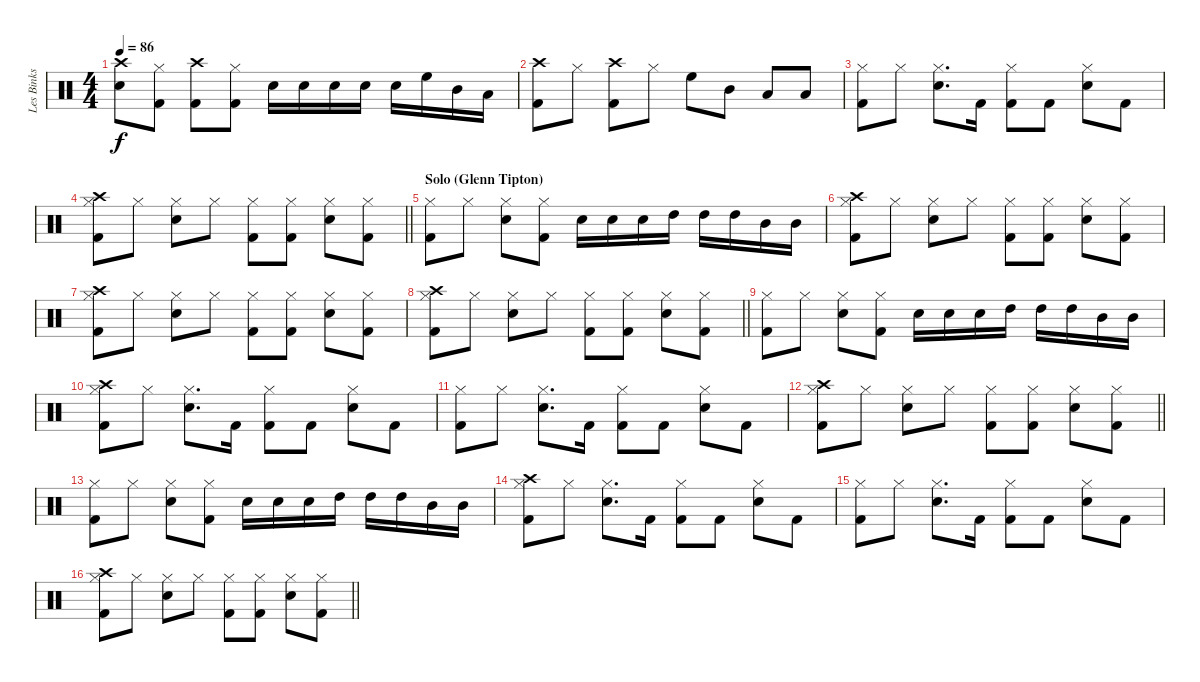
\track ("Les Binks" "Les Binks") {instrument percussion}
\staff {score}
\articulation defaults
\ts (4 4)
\tempo 86
\clef neutral
\ks c
("Snare (hit) 2" "Crash high (hit)").8{dy f} ("Hi-Hat (closed)" "Kick (hit) 2").8 ("Kick (hit) 2" "Crash high (hit)").8 ("Hi-Hat (closed)" "Kick (hit) 2").8 "Snare (hit) 2".16 "Snare (hit) 2".16 "Snare (hit) 2".16 "Snare (hit) 2".16 "Snare (hit) 2".16 "High Floor Tom (hit)".16 "Mid Tom (hit)".16 "Low Tom (hit)".16 |
("Crash high (hit)" "Kick (hit) 2").8 "Hi-Hat (closed)".8 ("Crash high (hit)" "Kick (hit) 2").8 "Hi-Hat (closed)".8 "High Floor Tom (hit)".8 "Mid Tom (hit)".8 "Low Tom (hit)".8 "Low Floor Tom (hit)".8 |
("Hi-Hat (closed)" "Kick (hit) 2").8 "Hi-Hat (closed)".8 ("Hi-Hat (closed)" "Snare (hit) 2").8{d} "Kick (hit) 2".16 ("Hi-Hat (closed)" "Kick (hit) 2").8 "Kick (hit) 2".8 ("Hi-Hat (closed)" "Snare (hit) 2").8 "Kick (hit) 2".8 |
\barLineRight lightlight
("Crash high (hit)" "Hi-Hat (closed)" "Kick (hit) 2").8 "Hi-Hat (closed)".8 ("Hi-Hat (closed)" "Snare (hit) 2").8 "Hi-Hat (closed)".8 ("Hi-Hat (closed)" "Kick (hit) 2").8 ("Hi-Hat (closed)" "Kick (hit) 2").8 ("Hi-Hat (closed)" "Snare (hit) 2").8 ("Hi-Hat (closed)" "Kick (hit) 2").8 |
\section ("" "Solo (Glenn Tipton)")
("Hi-Hat (closed)" "Kick (hit) 2").8 "Hi-Hat (closed)".8 ("Hi-Hat (closed)" "Snare (hit) 2").8 ("Hi-Hat (closed)" "Kick (hit) 2").8 "Snare (hit) 2".16 "Snare (hit) 2".16 "Snare (hit) 2".16 "High Tom (hit)".16 "High Tom (hit)".16 "High Tom (hit)".16 "Mid Tom (hit)".16 "Mid Tom (hit)".16 |
("Crash high (hit)" "Hi-Hat (closed)" "Kick (hit) 2").8 "Hi-Hat (closed)".8 ("Hi-Hat (closed)" "Snare (hit) 2").8 "Hi-Hat (closed)".8 ("Hi-Hat (closed)" "Kick (hit) 2").8 ("Hi-Hat (closed)" "Kick (hit) 2").8 ("Hi-Hat (closed)" "Snare (hit) 2").8 ("Hi-Hat (closed)" "Kick (hit) 2").8 |
("Crash high (hit)" "Hi-Hat (closed)" "Kick (hit) 2").8 "Hi-Hat (closed)".8 ("Hi-Hat (closed)" "Snare (hit) 2").8 "Hi-Hat (closed)".8 ("Hi-Hat (closed)" "Kick (hit) 2").8 ("Hi-Hat (closed)" "Kick (hit) 2").8 ("Hi-Hat (closed)" "Snare (hit) 2").8 ("Hi-Hat (closed)" "Kick (hit) 2").8 |
\barLineRight lightlight
("Crash high (hit)" "Hi-Hat (closed)" "Kick (hit) 2").8 "Hi-Hat (closed)".8 ("Hi-Hat (closed)" "Snare (hit) 2").8 "Hi-Hat (closed)".8 ("Hi-Hat (closed)" "Kick (hit) 2").8 ("Hi-Hat (closed)" "Kick (hit) 2").8 ("Hi-Hat (closed)" "Snare (hit) 2").8 ("Hi-Hat (closed)" "Kick (hit) 2").8 |
("Hi-Hat (closed)" "Kick (hit) 2").8 "Hi-Hat (closed)".8 ("Hi-Hat (closed)" "Snare (hit) 2").8 ("Hi-Hat (closed)" "Kick (hit) 2").8 "Snare (hit) 2".16 "Snare (hit) 2".16 "Snare (hit) 2".16 "High Tom (hit)".16 "High Tom (hit)".16 "High Tom (hit)".16 "Mid Tom (hit)".16 "Mid Tom (hit)".16 |
("Crash high (hit)" "Hi-Hat (closed)" "Kick (hit) 2").8 "Hi-Hat (closed)".8 ("Hi-Hat (closed)" "Snare (hit) 2").8{d} "Kick (hit) 2".16 ("Hi-Hat (closed)" "Kick (hit) 2").8 "Kick (hit) 2".8 ("Hi-Hat (closed)" "Snare (hit) 2").8 "Kick (hit) 2".8 |
("Hi-Hat (closed)" "Kick (hit) 2").8 "Hi-Hat (closed)".8 ("Hi-Hat (closed)" "Snare (hit) 2").8{d} "Kick (hit) 2".16 ("Hi-Hat (closed)" "Kick (hit) 2").8 "Kick (hit) 2".8 ("Hi-Hat (closed)" "Snare (hit) 2").8 "Kick (hit) 2".8 |
\barLineRight lightlight
("Crash high (hit)" "Hi-Hat (closed)" "Kick (hit) 2").8 "Hi-Hat (closed)".8 ("Hi-Hat (closed)" "Snare (hit) 2").8 "Hi-Hat (closed)".8 ("Hi-Hat (closed)" "Kick (hit) 2").8 ("Hi-Hat (closed)" "Kick (hit) 2").8 ("Hi-Hat (closed)" "Snare (hit) 2").8 ("Hi-Hat (closed)" "Kick (hit) 2").8 |
("Hi-Hat (closed)" "Kick (hit) 2").8 "Hi-Hat (closed)".8 ("Hi-Hat (closed)" "Snare (hit) 2").8 ("Hi-Hat (closed)" "Kick (hit) 2").8 "Snare (hit) 2".16 "Snare (hit) 2".16 "Snare (hit) 2".16 "High Tom (hit)".16 "High Tom (hit)".16 "High Tom (hit)".16 "Mid Tom (hit)".16 "Mid Tom (hit)".16 |
("Crash high (hit)" "Hi-Hat (closed)" "Kick (hit) 2").8 "Hi-Hat (closed)".8 ("Hi-Hat (closed)" "Snare (hit) 2").8{d} "Kick (hit) 2".16 ("Hi-Hat (closed)" "Kick (hit) 2").8 "Kick (hit) 2".8 ("Hi-Hat (closed)" "Snare (hit) 2").8 "Kick (hit) 2".8 |
("Hi-Hat (closed)" "Kick (hit) 2").8 "Hi-Hat (closed)".8 ("Hi-Hat (closed)" "Snare (hit) 2").8{d} "Kick (hit) 2".16 ("Hi-Hat (closed)" "Kick (hit) 2").8 "Kick (hit) 2".8 ("Hi-Hat (closed)" "Snare (hit) 2").8 "Kick (hit) 2".8 |
\barLineRight lightlight
("Crash high (hit)" "Hi-Hat (closed)" "Kick (hit) 2").8 "Hi-Hat (closed)".8 ("Hi-Hat (closed)" "Snare (hit) 2").8 "Hi-Hat (closed)".8 ("Hi-Hat (closed)" "Kick (hit) 2").8 ("Hi-Hat (closed)" "Kick (hit) 2").8 ("Hi-Hat (closed)" "Snare (hit) 2").8 ("Hi-Hat (closed)" "Kick (hit) 2").8
